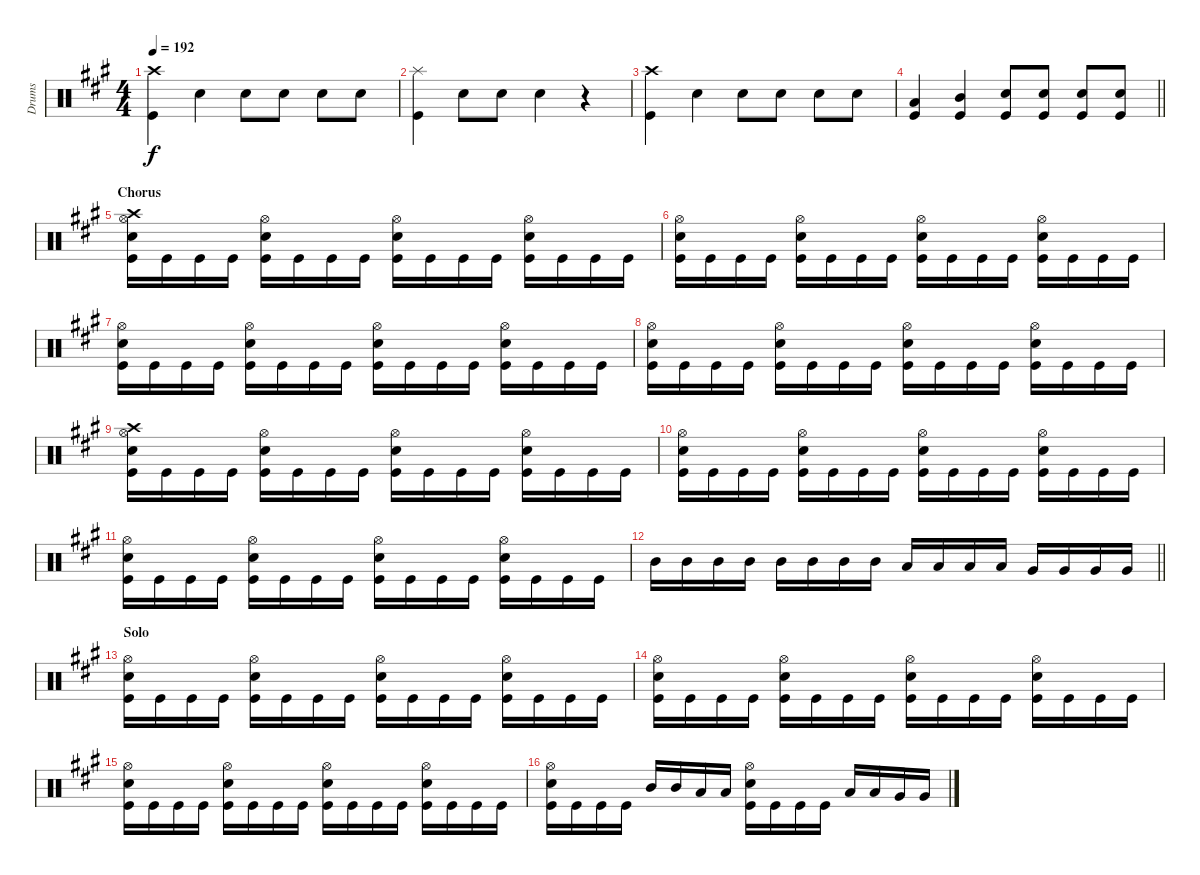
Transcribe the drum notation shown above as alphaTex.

\track ("Drums" "Drums") {instrument percussion}
\staff {score}
\articulation defaults
\ts (4 4)
\tempo 192
\clef neutral
\ks f#minor
("Crash high (hit)" "Kick (hit)").4{dy f} "Snare (hit) 2".4 "Snare (hit) 2".8 "Snare (hit) 2".8 "Snare (hit) 2".8 "Snare (hit) 2".8 |
("Splash (hit)" "Kick (hit)").4 "Snare (hit) 2".8 "Snare (hit) 2".8 "Snare (hit) 2".4 r.4 |
("Crash high (hit)" "Kick (hit)").4 "Snare (hit) 2"{tr (38 16)}.4 "Snare (hit) 2".8 "Snare (hit) 2".8 "Snare (hit) 2".8 "Snare (hit) 2".8 |
\barLineRight lightlight
("Low Tom (hit)" "Kick (hit)").4 ("Mid Tom (hit)" "Kick (hit)").4 ("Snare (hit) 2" "Kick (hit)").8 ("Snare (hit) 2" "Kick (hit)").8 ("Snare (hit) 2" "Kick (hit)").8 ("Snare (hit) 2" "Kick (hit)").8 |
\section ("" "Chorus")
("Crash high (hit)" "Hi-Hat (open)" "Snare (hit) 2" "Kick (hit)").16 "Kick (hit)".16 "Kick (hit)".16 "Kick (hit)".16 ("Hi-Hat (open)" "Snare (hit) 2" "Kick (hit)").16 "Kick (hit)".16 "Kick (hit)".16 "Kick (hit)".16 ("Hi-Hat (open)" "Snare (hit) 2" "Kick (hit)").16 "Kick (hit)".16 "Kick (hit)".16 "Kick (hit)".16 ("Hi-Hat (open)" "Snare (hit) 2" "Kick (hit)").16 "Kick (hit)".16 "Kick (hit)".16 "Kick (hit)".16 |
("Hi-Hat (open)" "Snare (hit) 2" "Kick (hit)").16 "Kick (hit)".16 "Kick (hit)".16 "Kick (hit)".16 ("Hi-Hat (open)" "Snare (hit) 2" "Kick (hit)").16 "Kick (hit)".16 "Kick (hit)".16 "Kick (hit)".16 ("Hi-Hat (open)" "Snare (hit) 2" "Kick (hit)").16 "Kick (hit)".16 "Kick (hit)".16 "Kick (hit)".16 ("Hi-Hat (open)" "Snare (hit) 2" "Kick (hit)").16 "Kick (hit)".16 "Kick (hit)".16 "Kick (hit)".16 |
("Hi-Hat (open)" "Snare (hit) 2" "Kick (hit)").16 "Kick (hit)".16 "Kick (hit)".16 "Kick (hit)".16 ("Hi-Hat (open)" "Snare (hit) 2" "Kick (hit)").16 "Kick (hit)".16 "Kick (hit)".16 "Kick (hit)".16 ("Hi-Hat (open)" "Snare (hit) 2" "Kick (hit)").16 "Kick (hit)".16 "Kick (hit)".16 "Kick (hit)".16 ("Hi-Hat (open)" "Snare (hit) 2" "Kick (hit)").16 "Kick (hit)".16 "Kick (hit)".16 "Kick (hit)".16 |
("Hi-Hat (open)" "Snare (hit) 2" "Kick (hit)").16 "Kick (hit)".16 "Kick (hit)".16 "Kick (hit)".16 ("Hi-Hat (open)" "Snare (hit) 2" "Kick (hit)").16 "Kick (hit)".16 "Kick (hit)".16 "Kick (hit)".16 ("Hi-Hat (open)" "Snare (hit) 2" "Kick (hit)").16 "Kick (hit)".16 "Kick (hit)".16 "Kick (hit)".16 ("Hi-Hat (open)" "Snare (hit) 2" "Kick (hit)").16 "Kick (hit)".16 "Kick (hit)".16 "Kick (hit)".16 |
("Crash high (hit)" "Hi-Hat (open)" "Snare (hit) 2" "Kick (hit)").16 "Kick (hit)".16 "Kick (hit)".16 "Kick (hit)".16 ("Hi-Hat (open)" "Snare (hit) 2" "Kick (hit)").16 "Kick (hit)".16 "Kick (hit)".16 "Kick (hit)".16 ("Hi-Hat (open)" "Snare (hit) 2" "Kick (hit)").16 "Kick (hit)".16 "Kick (hit)".16 "Kick (hit)".16 ("Hi-Hat (open)" "Snare (hit) 2" "Kick (hit)").16 "Kick (hit)".16 "Kick (hit)".16 "Kick (hit)".16 |
("Hi-Hat (open)" "Snare (hit) 2" "Kick (hit)").16 "Kick (hit)".16 "Kick (hit)".16 "Kick (hit)".16 ("Hi-Hat (open)" "Snare (hit) 2" "Kick (hit)").16 "Kick (hit)".16 "Kick (hit)".16 "Kick (hit)".16 ("Hi-Hat (open)" "Snare (hit) 2" "Kick (hit)").16 "Kick (hit)".16 "Kick (hit)".16 "Kick (hit)".16 ("Hi-Hat (open)" "Snare (hit) 2" "Kick (hit)").16 "Kick (hit)".16 "Kick (hit)".16 "Kick (hit)".16 |
("Hi-Hat (open)" "Snare (hit) 2" "Kick (hit)").16 "Kick (hit)".16 "Kick (hit)".16 "Kick (hit)".16 ("Hi-Hat (open)" "Snare (hit) 2" "Kick (hit)").16 "Kick (hit)".16 "Kick (hit)".16 "Kick (hit)".16 ("Hi-Hat (open)" "Snare (hit) 2" "Kick (hit)").16 "Kick (hit)".16 "Kick (hit)".16 "Kick (hit)".16 ("Hi-Hat (open)" "Snare (hit) 2" "Kick (hit)").16 "Kick (hit)".16 "Kick (hit)".16 "Kick (hit)".16 |
\barLineRight lightlight "Mid Tom (hit)".16 "Mid Tom (hit)".16 "Mid Tom (hit)".16 "Mid Tom (hit)".16 "Mid Tom (hit)".16 "Mid Tom (hit)".16 "Mid Tom (hit)".16 "Mid Tom (hit)".16 "Low Tom (hit)".16 "Low Tom (hit)".16 "Low Tom (hit)".16 "Low Tom (hit)".16 "Very Low Tom (hit)".16 "Very Low Tom (hit)".16 "Very Low Tom (hit)".16 "Very Low Tom (hit)".16
|
\section ("" "Solo")
("Hi-Hat (open)" "Snare (hit) 2" "Kick (hit)").16 "Kick (hit)".16 "Kick (hit)".16 "Kick (hit)".16 ("Hi-Hat (open)" "Snare (hit) 2" "Kick (hit)").16 "Kick (hit)".16 "Kick (hit)".16 "Kick (hit)".16 ("Hi-Hat (open)" "Snare (hit) 2" "Kick (hit)").16 "Kick (hit)".16 "Kick (hit)".16 "Kick (hit)".16 ("Hi-Hat (open)" "Snare (hit) 2" "Kick (hit)").16 "Kick (hit)".16 "Kick (hit)".16 "Kick (hit)".16 |
("Hi-Hat (open)" "Snare (hit) 2" "Kick (hit)").16 "Kick (hit)".16 "Kick (hit)".16 "Kick (hit)".16 ("Hi-Hat (open)" "Snare (hit) 2" "Kick (hit)").16 "Kick (hit)".16 "Kick (hit)".16 "Kick (hit)".16 ("Hi-Hat (open)" "Snare (hit) 2" "Kick (hit)").16 "Kick (hit)".16 "Kick (hit)".16 "Kick (hit)".16 ("Hi-Hat (open)" "Snare (hit) 2" "Kick (hit)").16 "Kick (hit)".16 "Kick (hit)".16 "Kick (hit)".16 |
("Hi-Hat (open)" "Snare (hit) 2" "Kick (hit)").16 "Kick (hit)".16 "Kick (hit)".16 "Kick (hit)".16 ("Hi-Hat (open)" "Snare (hit) 2" "Kick (hit)").16 "Kick (hit)".16 "Kick (hit)".16 "Kick (hit)".16 ("Hi-Hat (open)" "Snare (hit) 2" "Kick (hit)").16 "Kick (hit)".16 "Kick (hit)".16 "Kick (hit)".16 ("Hi-Hat (open)" "Snare (hit) 2" "Kick (hit)").16 "Kick (hit)".16 "Kick (hit)".16 "Kick (hit)".16 |
("Hi-Hat (open)" "Snare (hit) 2" "Kick (hit)").16 "Kick (hit)".16 "Kick (hit)".16 "Kick (hit)".16 "Mid Tom (hit)".16 "Mid Tom (hit)".16 "Low Tom (hit)".16 "Low Tom (hit)".16 ("Hi-Hat (open)" "Snare (hit) 2" "Kick (hit)").16 "Kick (hit)".16 "Kick (hit)".16 "Kick (hit)".16 "Low Tom (hit)".16 "Low Tom (hit)".16 "Very Low Tom (hit)".16 "Very Low Tom (hit)".16
